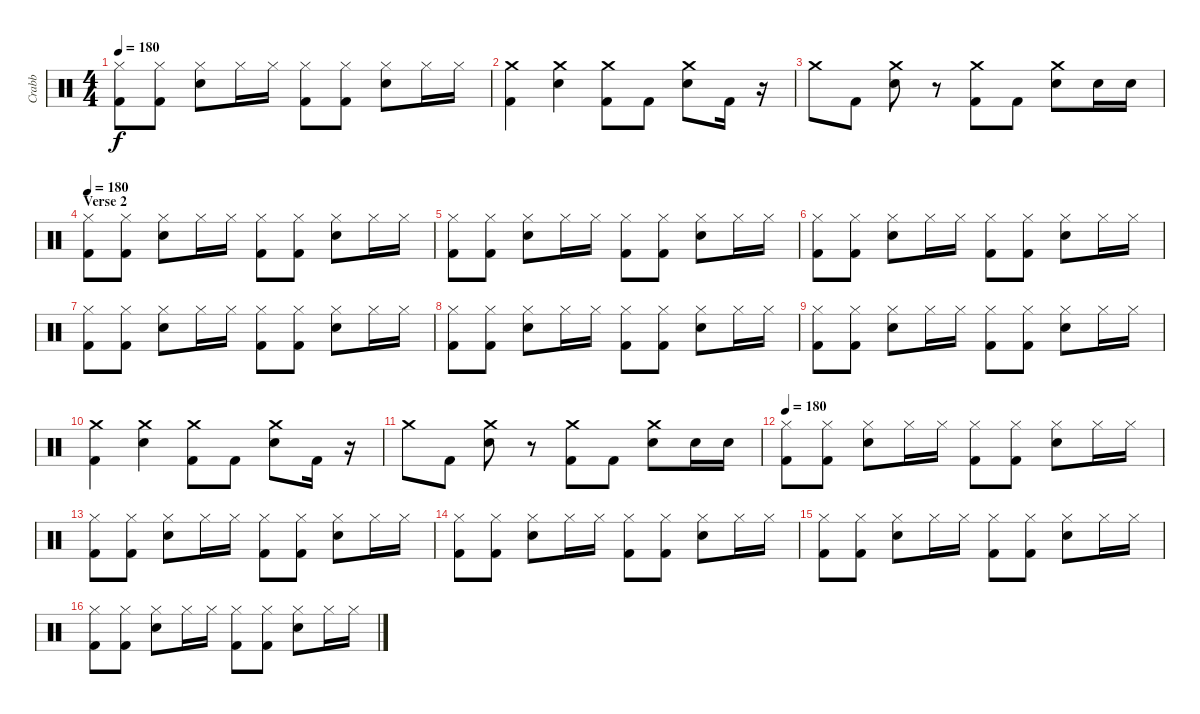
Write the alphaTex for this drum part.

\track ("Crabb" "Crabb") {instrument percussion}
\staff {score}
\articulation defaults
\ts (4 4)
\tempo 180
\clef neutral
\ks c
("Hi-Hat (closed)" "Kick (hit) 2").8{dy f} ("Hi-Hat (closed)" "Kick (hit) 2").8 ("Hi-Hat (closed)" "Electric Snare (hit)").8 "Hi-Hat (closed)".16 "Hi-Hat (closed)".16 ("Hi-Hat (closed)" "Kick (hit) 2").8 ("Hi-Hat (closed)" "Kick (hit) 2").8 ("Hi-Hat (closed)" "Electric Snare (hit)").8 "Hi-Hat (closed)".16 "Hi-Hat (closed)".16 |
("Crash medium (hit)" "Kick (hit) 2").4 ("Crash medium (hit)" "Electric Snare (hit)").4 ("Crash medium (hit)" "Kick (hit) 2").8 "Kick (hit) 2".8 ("Crash medium (hit)" "Electric Snare (hit)").8 "Kick (hit) 2".16 r.16 |
"Crash medium (hit)".8 "Kick (hit) 2".8 ("Crash medium (hit)" "Electric Snare (hit)").8 r.8 ("Crash medium (hit)" "Kick (hit) 2").8 "Kick (hit) 2".8 ("Crash medium (hit)" "Electric Snare (hit)").8 "Electric Snare (hit)".16 "Electric Snare (hit)".16 |
\section ("" "Verse 2")
\tempo 180
("Hi-Hat (closed)" "Kick (hit) 2").8 ("Hi-Hat (closed)" "Kick (hit) 2").8 ("Hi-Hat (closed)" "Electric Snare (hit)").8 "Hi-Hat (closed)".16 "Hi-Hat (closed)".16 ("Hi-Hat (closed)" "Kick (hit) 2").8 ("Hi-Hat (closed)" "Kick (hit) 2").8 ("Hi-Hat (closed)" "Electric Snare (hit)").8 "Hi-Hat (closed)".16 "Hi-Hat (closed)".16 |
("Hi-Hat (closed)" "Kick (hit) 2").8 ("Hi-Hat (closed)" "Kick (hit) 2").8 ("Hi-Hat (closed)" "Electric Snare (hit)").8 "Hi-Hat (closed)".16 "Hi-Hat (closed)".16 ("Hi-Hat (closed)" "Kick (hit) 2").8 ("Hi-Hat (closed)" "Kick (hit) 2").8 ("Hi-Hat (closed)" "Electric Snare (hit)").8 "Hi-Hat (closed)".16 "Hi-Hat (closed)".16 |
("Hi-Hat (closed)" "Kick (hit) 2").8 ("Hi-Hat (closed)" "Kick (hit) 2").8 ("Hi-Hat (closed)" "Electric Snare (hit)").8 "Hi-Hat (closed)".16 "Hi-Hat (closed)".16 ("Hi-Hat (closed)" "Kick (hit) 2").8 ("Hi-Hat (closed)" "Kick (hit) 2").8 ("Hi-Hat (closed)" "Electric Snare (hit)").8 "Hi-Hat (closed)".16 "Hi-Hat (closed)".16 |
("Hi-Hat (closed)" "Kick (hit) 2").8 ("Hi-Hat (closed)" "Kick (hit) 2").8 ("Hi-Hat (closed)" "Electric Snare (hit)").8 "Hi-Hat (closed)".16 "Hi-Hat (closed)".16 ("Hi-Hat (closed)" "Kick (hit) 2").8 ("Hi-Hat (closed)" "Kick (hit) 2").8 ("Hi-Hat (closed)" "Electric Snare (hit)").8 "Hi-Hat (closed)".16 "Hi-Hat (closed)".16 |
("Hi-Hat (closed)" "Kick (hit) 2").8 ("Hi-Hat (closed)" "Kick (hit) 2").8 ("Hi-Hat (closed)" "Electric Snare (hit)").8 "Hi-Hat (closed)".16 "Hi-Hat (closed)".16 ("Hi-Hat (closed)" "Kick (hit) 2").8 ("Hi-Hat (closed)" "Kick (hit) 2").8 ("Hi-Hat (closed)" "Electric Snare (hit)").8 "Hi-Hat (closed)".16 "Hi-Hat (closed)".16 |
("Hi-Hat (closed)" "Kick (hit) 2").8 ("Hi-Hat (closed)" "Kick (hit) 2").8 ("Hi-Hat (closed)" "Electric Snare (hit)").8 "Hi-Hat (closed)".16 "Hi-Hat (closed)".16 ("Hi-Hat (closed)" "Kick (hit) 2").8 ("Hi-Hat (closed)" "Kick (hit) 2").8 ("Hi-Hat (closed)" "Electric Snare (hit)").8 "Hi-Hat (closed)".16 "Hi-Hat (closed)".16 |
("Crash medium (hit)" "Kick (hit) 2").4 ("Crash medium (hit)" "Electric Snare (hit)").4 ("Crash medium (hit)" "Kick (hit) 2").8 "Kick (hit) 2".8 ("Crash medium (hit)" "Electric Snare (hit)").8 "Kick (hit) 2".16 r.16 |
"Crash medium (hit)".8 "Kick (hit) 2".8 ("Crash medium (hit)" "Electric Snare (hit)").8 r.8 ("Crash medium (hit)" "Kick (hit) 2").8 "Kick (hit) 2".8 ("Crash medium (hit)" "Electric Snare (hit)").8 "Electric Snare (hit)".16 "Electric Snare (hit)".16 |
\tempo 180
("Hi-Hat (closed)" "Kick (hit) 2").8 ("Hi-Hat (closed)" "Kick (hit) 2").8 ("Hi-Hat (closed)" "Electric Snare (hit)").8 "Hi-Hat (closed)".16 "Hi-Hat (closed)".16 ("Hi-Hat (closed)" "Kick (hit) 2").8 ("Hi-Hat (closed)" "Kick (hit) 2").8 ("Hi-Hat (closed)" "Electric Snare (hit)").8 "Hi-Hat (closed)".16 "Hi-Hat (closed)".16 |
("Hi-Hat (closed)" "Kick (hit) 2").8 ("Hi-Hat (closed)" "Kick (hit) 2").8 ("Hi-Hat (closed)" "Electric Snare (hit)").8 "Hi-Hat (closed)".16 "Hi-Hat (closed)".16 ("Hi-Hat (closed)" "Kick (hit) 2").8 ("Hi-Hat (closed)" "Kick (hit) 2").8 ("Hi-Hat (closed)" "Electric Snare (hit)").8 "Hi-Hat (closed)".16 "Hi-Hat (closed)".16 |
("Hi-Hat (closed)" "Kick (hit) 2").8 ("Hi-Hat (closed)" "Kick (hit) 2").8 ("Hi-Hat (closed)" "Electric Snare (hit)").8 "Hi-Hat (closed)".16 "Hi-Hat (closed)".16 ("Hi-Hat (closed)" "Kick (hit) 2").8 ("Hi-Hat (closed)" "Kick (hit) 2").8 ("Hi-Hat (closed)" "Electric Snare (hit)").8 "Hi-Hat (closed)".16 "Hi-Hat (closed)".16 |
("Hi-Hat (closed)" "Kick (hit) 2").8 ("Hi-Hat (closed)" "Kick (hit) 2").8 ("Hi-Hat (closed)" "Electric Snare (hit)").8 "Hi-Hat (closed)".16 "Hi-Hat (closed)".16 ("Hi-Hat (closed)" "Kick (hit) 2").8 ("Hi-Hat (closed)" "Kick (hit) 2").8 ("Hi-Hat (closed)" "Electric Snare (hit)").8 "Hi-Hat (closed)".16 "Hi-Hat (closed)".16 |
("Hi-Hat (closed)" "Kick (hit) 2").8 ("Hi-Hat (closed)" "Kick (hit) 2").8 ("Hi-Hat (closed)" "Electric Snare (hit)").8 "Hi-Hat (closed)".16 "Hi-Hat (closed)".16 ("Hi-Hat (closed)" "Kick (hit) 2").8 ("Hi-Hat (closed)" "Kick (hit) 2").8 ("Hi-Hat (closed)" "Electric Snare (hit)").8 "Hi-Hat (closed)".16 "Hi-Hat (closed)".16
